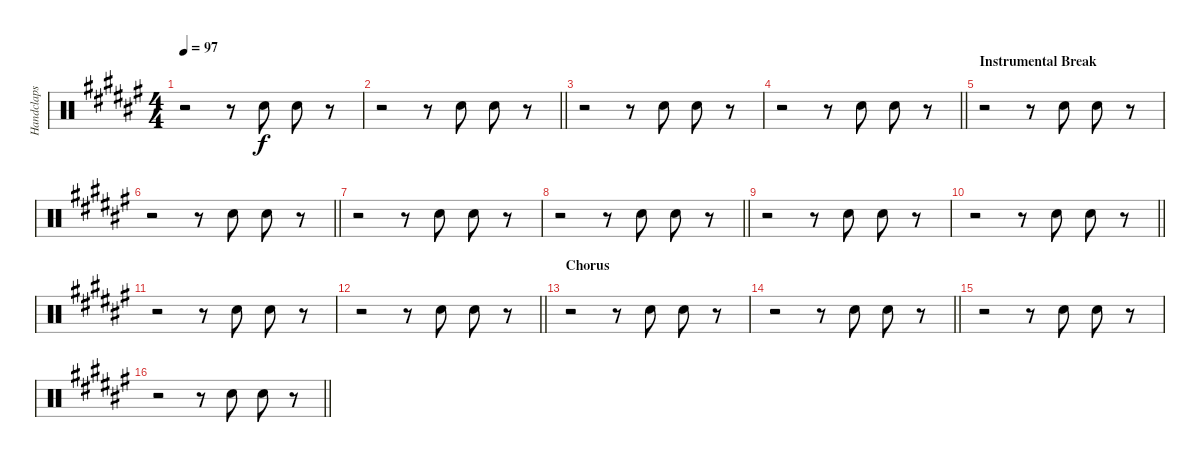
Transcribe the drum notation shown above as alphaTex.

\track ("Handclaps" "Handclaps") {instrument percussion}
\staff {score}
\articulation defaults
\ts (4 4)
\tempo 97
\clef neutral
\ks f#
r.2{dy f} r.8 "Hand Clap (hit)".8 "Hand Clap (hit)".8 r.8 |
\barLineRight lightlight
r.2 r.8 "Hand Clap (hit)".8 "Hand Clap (hit)".8 r.8 |
r.2 r.8 "Hand Clap (hit)".8 "Hand Clap (hit)".8 r.8 |
\barLineRight lightlight
r.2 r.8 "Hand Clap (hit)".8 "Hand Clap (hit)".8 r.8 |
\section ("" "Instrumental Break")
r.2 r.8 "Hand Clap (hit)".8 "Hand Clap (hit)".8 r.8 |
\barLineRight lightlight
r.2 r.8 "Hand Clap (hit)".8 "Hand Clap (hit)".8 r.8 |
r.2 r.8 "Hand Clap (hit)".8 "Hand Clap (hit)".8 r.8 |
\barLineRight lightlight
r.2 r.8 "Hand Clap (hit)".8 "Hand Clap (hit)".8 r.8 |
r.2 r.8 "Hand Clap (hit)".8 "Hand Clap (hit)".8 r.8 |
\barLineRight lightlight
r.2 r.8 "Hand Clap (hit)".8 "Hand Clap (hit)".8 r.8 |
r.2 r.8 "Hand Clap (hit)".8 "Hand Clap (hit)".8 r.8 |
\barLineRight lightlight
r.2 r.8 "Hand Clap (hit)".8 "Hand Clap (hit)".8 r.8 |
\section ("" "Chorus")
r.2 r.8 "Hand Clap (hit)".8 "Hand Clap (hit)".8 r.8 |
\barLineRight lightlight
r.2 r.8 "Hand Clap (hit)".8 "Hand Clap (hit)".8 r.8 |
r.2 r.8 "Hand Clap (hit)".8 "Hand Clap (hit)".8 r.8 |
\barLineRight lightlight
r.2 r.8 "Hand Clap (hit)".8 "Hand Clap (hit)".8 r.8
